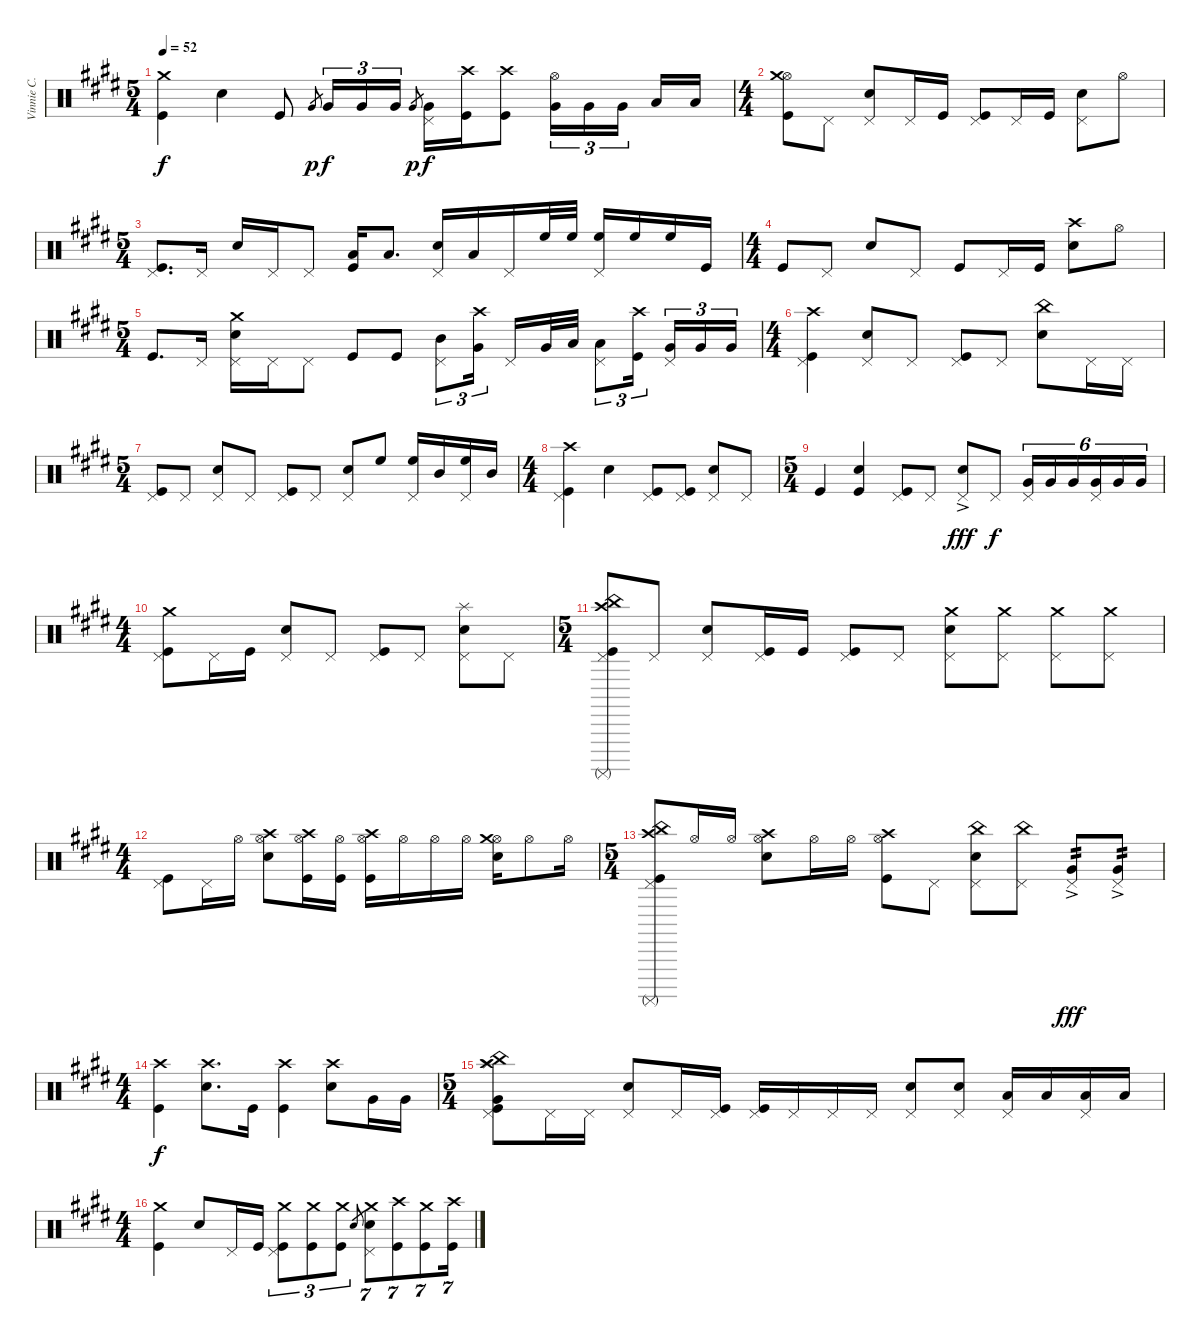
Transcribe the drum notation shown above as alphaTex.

\track ("Vinnie C." "Vinnie C.") {instrument percussion}
\staff {score}
\articulation defaults
\ts (5 4)
\tempo 52
\clef neutral
\ks e
("Crash medium (hit)" "Kick (hit)").4{dy f} "Electric Snare (hit)".4 "Kick (hit)".8 "Very Low Tom (hit)".8{gr dy p} "Very Low Tom (hit)".16{tu (3 2) dy f} "Very Low Tom (hit)".16{tu (3 2)} "Very Low Tom (hit)".16{tu (3 2)} "Very Low Tom (hit)".8{gr dy p} ("Pedal Hi-Hat (hit)" "Very Low Tom (hit)").16{dy f} ("Crash high (hit)" "Kick (hit)").16 ("Crash high (hit)" "Kick (hit)").8 ("Hi-Hat (open)" "Very Low Tom (hit)").16{tu (3 2)} "Very Low Tom (hit)".16{tu (3 2)} "Very Low Tom (hit)".16{tu (3 2)} "Low Floor Tom (hit)".16 "Low Floor Tom (hit)".16 |
\ts (4 4)
("Hi-Hat (open)" "Crash medium (hit)" "Kick (hit)").8 "Pedal Hi-Hat (hit)".8 ("Pedal Hi-Hat (hit)" "Electric Snare (hit)").8 "Pedal Hi-Hat (hit)".16 "Kick (hit)".16 ("Pedal Hi-Hat (hit)" "Kick (hit)").8 "Pedal Hi-Hat (hit)".16 "Kick (hit)".16 ("Pedal Hi-Hat (hit)" "Electric Snare (hit)").8 "Hi-Hat (open)".8 |
\ts (5 4)
("Pedal Hi-Hat (hit)" "Kick (hit)").8{d} "Pedal Hi-Hat (hit)".16 "Electric Snare (hit)".16 "Pedal Hi-Hat (hit)".16 "Pedal Hi-Hat (hit)".8 ("Low Tom (hit)" "Kick (hit)").16 "Low Tom (hit)".8{d} ("Pedal Hi-Hat (hit)" "Electric Snare (hit)").16 "Low Tom (hit)".16 "Pedal Hi-Hat (hit)".16 "High Floor Tom (hit)".32 "High Floor Tom (hit)".32 ("Pedal Hi-Hat (hit)" "High Floor Tom (hit)").16 "High Floor Tom (hit)".16 "High Floor Tom (hit)".16 "Kick (hit)".16 |
\ts (4 4)
"Kick (hit)".8 "Pedal Hi-Hat (hit)".8 "Electric Snare (hit)".8 "Pedal Hi-Hat (hit)".8 "Kick (hit)".8 "Pedal Hi-Hat (hit)".16 "Kick (hit)".16 ("Crash high (hit)" "Electric Snare (hit)").8 "Hi-Hat (open)".8 |
\ts (5 4)
"Kick (hit)".8{d} "Pedal Hi-Hat (hit)".16 ("Pedal Hi-Hat (hit)" "Crash medium (hit)" "Electric Snare (hit)").16 "Pedal Hi-Hat (hit)".16 "Pedal Hi-Hat (hit)".8 "Kick (hit)".8 "Kick (hit)".8 ("Pedal Hi-Hat (hit)" "Mid Tom (hit)").8{tu (3 2)} ("Crash high (hit)" "Very Low Tom (hit)").16{tu (3 2)} "Pedal Hi-Hat (hit)".16 "Very Low Tom (hit)".32 "Low Floor Tom (hit)".32 ("Pedal Hi-Hat (hit)" "Low Floor Tom (hit)").8{tu (3 2)} ("Crash high (hit)" "Kick (hit)").16{tu (3 2)} ("Pedal Hi-Hat (hit)" "Very Low Tom (hit)").16{tu (3 2)} "Very Low Tom (hit)".16{tu (3 2)} "Very Low Tom (hit)".16{tu (3 2)} |
\ts (4 4)
("Pedal Hi-Hat (hit)" "Crash high (hit)" "Kick (hit)").4 ("Pedal Hi-Hat (hit)" "Electric Snare (hit)").8 "Pedal Hi-Hat (hit)".8 ("Pedal Hi-Hat (hit)" "Kick (hit)").8 "Pedal Hi-Hat (hit)".8 ("China (hit)" "Electric Snare (hit)").8 "Pedal Hi-Hat (hit)".16 "Pedal Hi-Hat (hit)".16 |
\ts (5 4)
("Pedal Hi-Hat (hit)" "Kick (hit)").8 "Pedal Hi-Hat (hit)".8 ("Pedal Hi-Hat (hit)" "Electric Snare (hit)").8 "Pedal Hi-Hat (hit)".8 ("Pedal Hi-Hat (hit)" "Kick (hit)").8 "Pedal Hi-Hat (hit)".8 ("Pedal Hi-Hat (hit)" "Electric Snare (hit)").8 "High Floor Tom (hit)".8 ("Pedal Hi-Hat (hit)" "High Floor Tom (hit)").16 "Mid Tom (hit)".16 ("Pedal Hi-Hat (hit)" "High Floor Tom (hit)").16 "Mid Tom (hit)".16 |
\ts (4 4)
("Pedal Hi-Hat (hit)" "Crash high (hit)" "Kick (hit)").4 "Electric Snare (hit)".4 ("Pedal Hi-Hat (hit)" "Kick (hit)").8 ("Pedal Hi-Hat (hit)" "Kick (hit)").8 ("Pedal Hi-Hat (hit)" "Electric Snare (hit)").8 "Pedal Hi-Hat (hit)".8 |
\ts (5 4)
"Kick (hit)".4 ("Electric Snare (hit)" "Kick (hit)").4 ("Pedal Hi-Hat (hit)" "Kick (hit)").8 "Pedal Hi-Hat (hit)".8 ("Pedal Hi-Hat (hit)" "Electric Snare (hit)"{ac}).8{dy fff} "Pedal Hi-Hat (hit)".8{dy f} ("Pedal Hi-Hat (hit)" "Very Low Tom (hit)").16{tu (6 4)} "Very Low Tom (hit)".16{tu (6 4)} "Very Low Tom (hit)".16{tu (6 4)} ("Pedal Hi-Hat (hit)" "Very Low Tom (hit)").16{tu (6 4)} "Very Low Tom (hit)".16{tu (6 4)} "Very Low Tom (hit)".16{tu (6 4)} |
\ts (4 4)
("Pedal Hi-Hat (hit)" "Crash medium (hit)" "Kick (hit)").8 "Pedal Hi-Hat (hit)".16 "Kick (hit)".16 ("Pedal Hi-Hat (hit)" "Electric Snare (hit)").8 "Pedal Hi-Hat (hit)".8 ("Pedal Hi-Hat (hit)" "Kick (hit)").8 "Pedal Hi-Hat (hit)".8 ("Pedal Hi-Hat (hit)" "Splash (hit)" "Electric Snare (hit)").8 "Pedal Hi-Hat (hit)".8 |
\ts (5 4)
("Surdo (mute)" "China (hit)" "Crash high (hit)" "Pedal Hi-Hat (hit)" "Kick (hit)").8 "Pedal Hi-Hat (hit)".8 ("Pedal Hi-Hat (hit)" "Electric Snare (hit)").8 ("Pedal Hi-Hat (hit)" "Kick (hit)").16 "Kick (hit)".16 ("Pedal Hi-Hat (hit)" "Kick (hit)").8 "Pedal Hi-Hat (hit)".8 ("Pedal Hi-Hat (hit)" "Crash medium (hit)" "Electric Snare (hit)").8 ("Pedal Hi-Hat (hit)" "Crash medium (hit)").8 ("Pedal Hi-Hat (hit)" "Crash medium (hit)").8 ("Pedal Hi-Hat (hit)" "Crash medium (hit)").8 |
\ts (4 4)
("Pedal Hi-Hat (hit)" "Kick (hit)").8 "Pedal Hi-Hat (hit)".16 "Hi-Hat (open)".16 ("Hi-Hat (open)" "Crash high (hit)" "Electric Snare (hit)").8 ("Hi-Hat (open)" "Crash high (hit)" "Kick (hit)").16 ("Hi-Hat (open)" "Kick (hit)").16 ("Hi-Hat (open)" "Crash high (hit)" "Kick (hit)").16 "Hi-Hat (open)".16 "Hi-Hat (open)".16 "Hi-Hat (open)".16 ("Hi-Hat (open)" "Crash medium (hit)" "Electric Snare (hit)").16 "Hi-Hat (open)".8 "Hi-Hat (open)".16 |
\ts (5 4)
("Surdo (mute)" "China (hit)" "Crash high (hit)" "Pedal Hi-Hat (hit)" "Kick (hit)").8 "Hi-Hat (open)".16 "Hi-Hat (open)".16 ("Hi-Hat (open)" "Crash high (hit)" "Electric Snare (hit)").8 "Hi-Hat (open)".16 "Hi-Hat (open)".16 ("Hi-Hat (open)" "Crash high (hit)" "Kick (hit)").8 "Pedal Hi-Hat (hit)".8 ("Pedal Hi-Hat (hit)" "China (hit)" "Electric Snare (hit)").8 ("Pedal Hi-Hat (hit)" "China (hit)").8 ("Pedal Hi-Hat (hit)" "Very Low Tom (hit)"{ac}).8{tp 2 dy fff} ("Pedal Hi-Hat (hit)" "Very Low Tom (hit)"{ac}).8{tp 2} |
\ts (4 4)
("Crash high (hit)" "Kick (hit)").4{dy f} ("Crash high (hit)" "Electric Snare (hit)").8{d} "Kick (hit)".16 ("Crash high (hit)" "Kick (hit)").4 ("Crash high (hit)" "Electric Snare (hit)").8 "Very Low Tom (hit)".16 "Very Low Tom (hit)".16 |
\ts (5 4)
("Pedal Hi-Hat (hit)" "China (hit)" "Very Low Tom (hit)" "Splash (hit)" "Crash high (hit)" "Kick (hit)").8 "Pedal Hi-Hat (hit)".16 "Pedal Hi-Hat (hit)".16 ("Pedal Hi-Hat (hit)" "Electric Snare (hit)").8 "Pedal Hi-Hat (hit)".16 ("Pedal Hi-Hat (hit)" "Kick (hit)").16 ("Pedal Hi-Hat (hit)" "Kick (hit)").16 "Pedal Hi-Hat (hit)".16 "Pedal Hi-Hat (hit)".16 "Pedal Hi-Hat (hit)".16 ("Pedal Hi-Hat (hit)" "Electric Snare (hit)").8 ("Pedal Hi-Hat (hit)" "Electric Snare (hit)").8 ("Pedal Hi-Hat (hit)" "Low Tom (hit)").16 "Low Tom (hit)".16 ("Pedal Hi-Hat (hit)" "Low Tom (hit)").16 "Low Tom (hit)".16 |
\ts (4 4)
("Crash medium (hit)" "Kick (hit)").4 "Electric Snare (hit)".8 "Pedal Hi-Hat (hit)".16 "Kick (hit)".16 ("Pedal Hi-Hat (hit)" "Crash medium (hit)" "Kick (hit)").8{tu (3 2)} ("Crash medium (hit)" "Kick (hit)").8{tu (3 2)} ("Crash medium (hit)" "Kick (hit)").8{tu (3 2)} "Electric Snare (hit)".8{gr} ("Pedal Hi-Hat (hit)" "Crash medium (hit)" "Electric Snare (hit)").8{tu (7 4)} ("Crash high (hit)" "Kick (hit)").8{tu (7 4)} ("Crash medium (hit)" "Kick (hit)").8{tu (7 4)} ("Crash high (hit)" "Kick (hit)").16{tu (7 4)}
